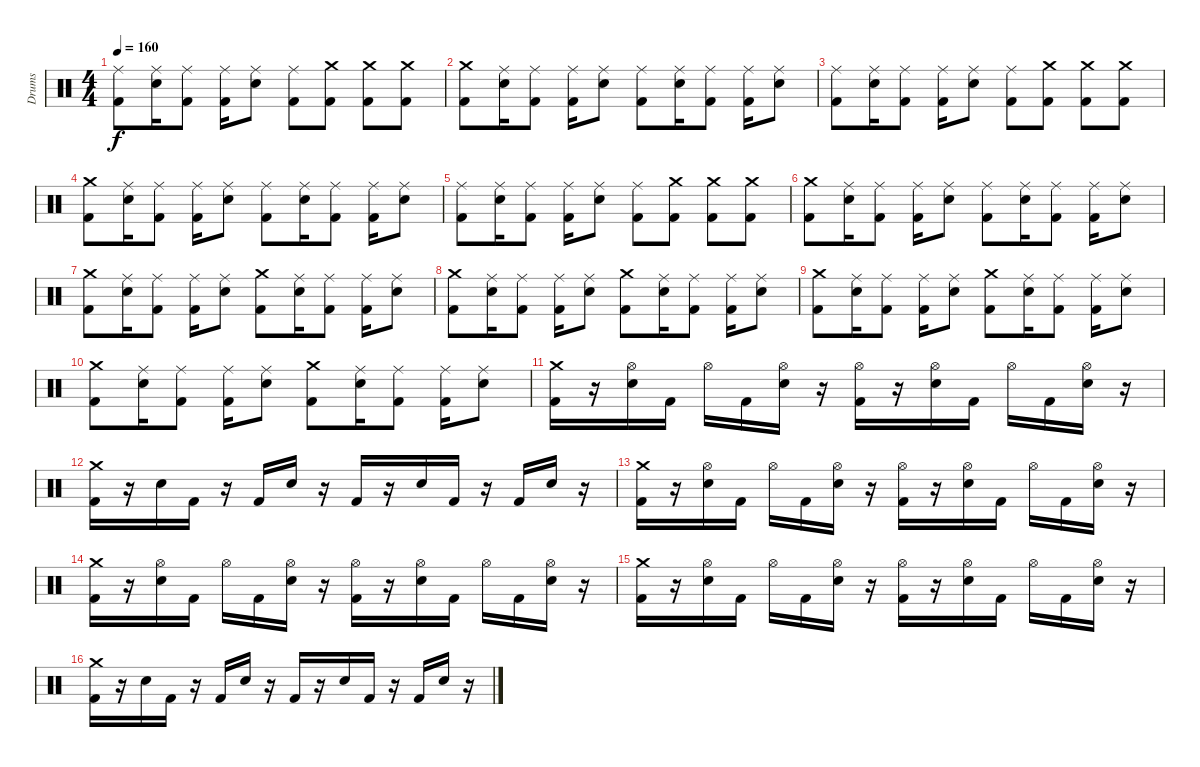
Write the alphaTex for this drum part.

\track ("Drums" "Drums") {instrument percussion}
\staff {score}
\articulation defaults
\ts (4 4)
\tempo 160
\clef neutral
\ks c
("Ride (middle)" "Kick (hit) 2").8{dy f} ("Snare (hit) 2" "Ride (middle)").16 ("Ride (middle)" "Kick (hit) 2").8 ("Ride (middle)" "Kick (hit) 2").16 ("Snare (hit) 2" "Ride (middle)").8 ("Ride (middle)" "Kick (hit) 2").8 ("Crash medium (hit)" "Kick (hit) 2").8 ("Crash medium (hit)" "Kick (hit) 2").8 ("Crash medium (hit)" "Kick (hit) 2").8 |
("Crash medium (hit)" "Kick (hit) 2").8 ("Snare (hit) 2" "Ride (middle)").16 ("Ride (middle)" "Kick (hit) 2").8 ("Ride (middle)" "Kick (hit) 2").16 ("Snare (hit) 2" "Ride (middle)").8 ("Ride (middle)" "Kick (hit) 2").8 ("Snare (hit) 2" "Ride (middle)").16 ("Ride (middle)" "Kick (hit) 2").8 ("Ride (middle)" "Kick (hit) 2").16 ("Snare (hit) 2" "Ride (middle)").8 |
("Ride (middle)" "Kick (hit) 2").8 ("Snare (hit) 2" "Ride (middle)").16 ("Ride (middle)" "Kick (hit) 2").8 ("Ride (middle)" "Kick (hit) 2").16 ("Snare (hit) 2" "Ride (middle)").8 ("Ride (middle)" "Kick (hit) 2").8 ("Crash medium (hit)" "Kick (hit) 2").8 ("Crash medium (hit)" "Kick (hit) 2").8 ("Crash medium (hit)" "Kick (hit) 2").8 |
("Crash medium (hit)" "Kick (hit) 2").8 ("Snare (hit) 2" "Ride (middle)").16 ("Ride (middle)" "Kick (hit) 2").8 ("Ride (middle)" "Kick (hit) 2").16 ("Snare (hit) 2" "Ride (middle)").8 ("Ride (middle)" "Kick (hit) 2").8 ("Snare (hit) 2" "Ride (middle)").16 ("Ride (middle)" "Kick (hit) 2").8 ("Ride (middle)" "Kick (hit) 2").16 ("Snare (hit) 2" "Ride (middle)").8 |
("Ride (middle)" "Kick (hit) 2").8 ("Snare (hit) 2" "Ride (middle)").16 ("Ride (middle)" "Kick (hit) 2").8 ("Ride (middle)" "Kick (hit) 2").16 ("Snare (hit) 2" "Ride (middle)").8 ("Ride (middle)" "Kick (hit) 2").8 ("Crash medium (hit)" "Kick (hit) 2").8 ("Crash medium (hit)" "Kick (hit) 2").8 ("Crash medium (hit)" "Kick (hit) 2").8 |
("Crash medium (hit)" "Kick (hit) 2").8 ("Snare (hit) 2" "Ride (middle)").16 ("Ride (middle)" "Kick (hit) 2").8 ("Ride (middle)" "Kick (hit) 2").16 ("Snare (hit) 2" "Ride (middle)").8 ("Ride (middle)" "Kick (hit) 2").8 ("Snare (hit) 2" "Ride (middle)").16 ("Ride (middle)" "Kick (hit) 2").8 ("Ride (middle)" "Kick (hit) 2").16 ("Snare (hit) 2" "Ride (middle)").8 |
("Crash medium (hit)" "Kick (hit) 2").8 ("Snare (hit) 2" "Ride (middle)").16 ("Ride (middle)" "Kick (hit) 2").8 ("Ride (middle)" "Kick (hit) 2").16 ("Snare (hit) 2" "Ride (middle)").8 ("Crash medium (hit)" "Kick (hit) 2").8 ("Snare (hit) 2" "Ride (middle)").16 ("Ride (middle)" "Kick (hit) 2").8 ("Ride (middle)" "Kick (hit) 2").16 ("Snare (hit) 2" "Ride (middle)").8 |
("Crash medium (hit)" "Kick (hit) 2").8 ("Snare (hit) 2" "Ride (middle)").16 ("Ride (middle)" "Kick (hit) 2").8 ("Ride (middle)" "Kick (hit) 2").16 ("Snare (hit) 2" "Ride (middle)").8 ("Crash medium (hit)" "Kick (hit) 2").8 ("Snare (hit) 2" "Ride (middle)").16 ("Ride (middle)" "Kick (hit) 2").8 ("Ride (middle)" "Kick (hit) 2").16 ("Snare (hit) 2" "Ride (middle)").8 |
("Crash medium (hit)" "Kick (hit) 2").8 ("Snare (hit) 2" "Ride (middle)").16 ("Ride (middle)" "Kick (hit) 2").8 ("Ride (middle)" "Kick (hit) 2").16 ("Snare (hit) 2" "Ride (middle)").8 ("Crash medium (hit)" "Kick (hit) 2").8 ("Snare (hit) 2" "Ride (middle)").16 ("Ride (middle)" "Kick (hit) 2").8 ("Ride (middle)" "Kick (hit) 2").16 ("Snare (hit) 2" "Ride (middle)").8 |
("Crash medium (hit)" "Kick (hit) 2").8 ("Snare (hit) 2" "Ride (middle)").16 ("Ride (middle)" "Kick (hit) 2").8 ("Ride (middle)" "Kick (hit) 2").16 ("Snare (hit) 2" "Ride (middle)").8 ("Crash medium (hit)" "Kick (hit) 2").8 ("Snare (hit) 2" "Ride (middle)").16 ("Ride (middle)" "Kick (hit) 2").8 ("Ride (middle)" "Kick (hit) 2").16 ("Snare (hit) 2" "Ride (middle)").8 |
("Crash medium (hit)" "Kick (hit) 2").16 r.16 ("Snare (hit) 2" "Hi-Hat (open)").16 "Kick (hit) 2".16 "Hi-Hat (open)".16 "Kick (hit) 2".16 ("Snare (hit) 2" "Hi-Hat (open)").16 r.16 ("Hi-Hat (open)" "Kick (hit) 2").16 r.16 ("Snare (hit) 2" "Hi-Hat (open)").16 "Kick (hit) 2".16 "Hi-Hat (open)".16 "Kick (hit) 2".16 ("Snare (hit) 2" "Hi-Hat (open)").16 r.16 |
("Crash medium (hit)" "Kick (hit) 2").16 r.16 "Snare (hit) 2".16 "Kick (hit) 2".16 r.16 "Kick (hit) 2".16 "Snare (hit) 2".16 r.16 "Kick (hit) 2".16 r.16 "Snare (hit) 2".16 "Kick (hit) 2".16 r.16 "Kick (hit) 2".16 "Snare (hit) 2".16 r.16 |
("Crash medium (hit)" "Kick (hit) 2").16 r.16 ("Snare (hit) 2" "Hi-Hat (open)").16 "Kick (hit) 2".16 "Hi-Hat (open)".16 "Kick (hit) 2".16 ("Snare (hit) 2" "Hi-Hat (open)").16 r.16 ("Hi-Hat (open)" "Kick (hit) 2").16 r.16 ("Snare (hit) 2" "Hi-Hat (open)").16 "Kick (hit) 2".16 "Hi-Hat (open)".16 "Kick (hit) 2".16 ("Snare (hit) 2" "Hi-Hat (open)").16 r.16 |
("Crash medium (hit)" "Kick (hit) 2").16 r.16 ("Snare (hit) 2" "Hi-Hat (open)").16 "Kick (hit) 2".16 "Hi-Hat (open)".16 "Kick (hit) 2".16 ("Snare (hit) 2" "Hi-Hat (open)").16 r.16 ("Hi-Hat (open)" "Kick (hit) 2").16 r.16 ("Snare (hit) 2" "Hi-Hat (open)").16 "Kick (hit) 2".16 "Hi-Hat (open)".16 "Kick (hit) 2".16 ("Snare (hit) 2" "Hi-Hat (open)").16 r.16 |
("Crash medium (hit)" "Kick (hit) 2").16 r.16 ("Snare (hit) 2" "Hi-Hat (open)").16 "Kick (hit) 2".16 "Hi-Hat (open)".16 "Kick (hit) 2".16 ("Snare (hit) 2" "Hi-Hat (open)").16 r.16 ("Hi-Hat (open)" "Kick (hit) 2").16 r.16 ("Snare (hit) 2" "Hi-Hat (open)").16 "Kick (hit) 2".16 "Hi-Hat (open)".16 "Kick (hit) 2".16 ("Snare (hit) 2" "Hi-Hat (open)").16 r.16 |
("Crash medium (hit)" "Kick (hit) 2").16 r.16 "Snare (hit) 2".16 "Kick (hit) 2".16 r.16 "Kick (hit) 2".16 "Snare (hit) 2".16 r.16 "Kick (hit) 2".16 r.16 "Snare (hit) 2".16 "Kick (hit) 2".16 r.16 "Kick (hit) 2".16 "Snare (hit) 2".16 r.16
